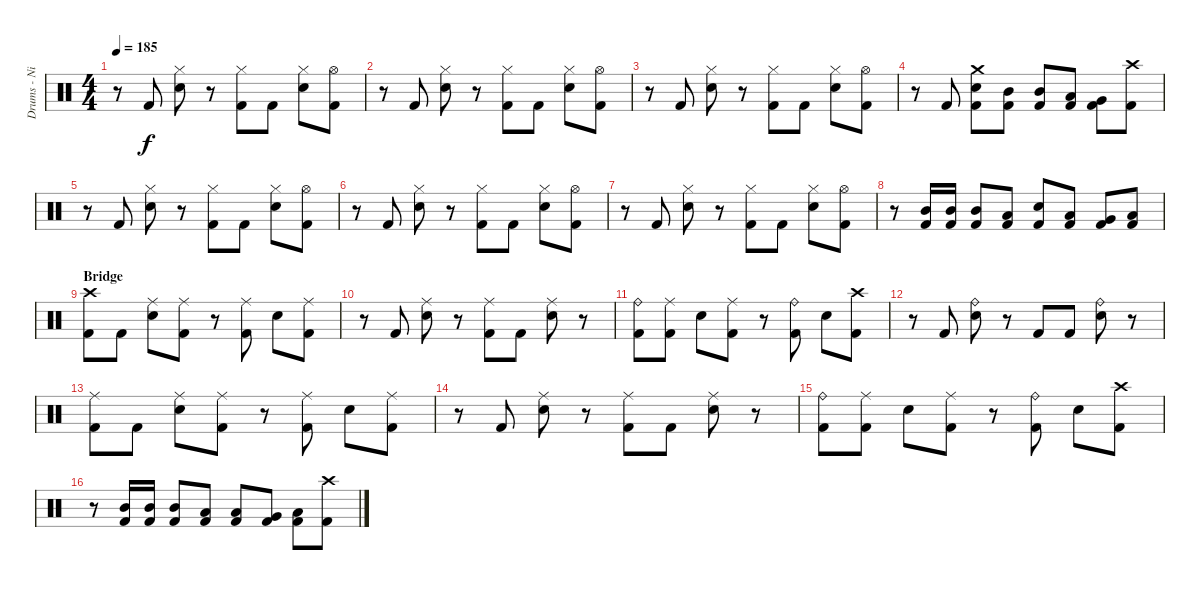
\track ("Drums - Nicko" "Drums - Ni") {instrument percussion}
\staff {score}
\articulation defaults
\ts (4 4)
\section ("" "")
\tempo 185
\clef neutral
\ks c
r.8{dy f} "Kick (hit) 2".8 ("Hi-Hat (closed)" "Snare (hit) 2").8 r.8 ("Hi-Hat (closed)" "Kick (hit) 2").8 "Kick (hit) 2".8 ("Hi-Hat (closed)" "Snare (hit) 2").8 ("Hi-Hat (open)" "Kick (hit) 2").8 |
r.8 "Kick (hit) 2".8 ("Hi-Hat (closed)" "Snare (hit) 2").8 r.8 ("Hi-Hat (closed)" "Kick (hit) 2").8 "Kick (hit) 2".8 ("Hi-Hat (closed)" "Snare (hit) 2").8 ("Hi-Hat (open)" "Kick (hit) 2").8 |
r.8 "Kick (hit) 2".8 ("Hi-Hat (closed)" "Snare (hit) 2").8 r.8 ("Hi-Hat (closed)" "Kick (hit) 2").8 "Kick (hit) 2".8 ("Hi-Hat (closed)" "Snare (hit) 2").8 ("Hi-Hat (open)" "Kick (hit) 2").8 |
r.8 "Kick (hit) 2".8 ("Crash medium (hit)" "Snare (hit) 2" "Kick (hit) 2").8 ("Mid Tom (hit)" "Kick (hit) 2").8 ("Mid Tom (hit)" "Kick (hit) 2").8 ("Low Tom (hit)" "Kick (hit) 2").8 ("Very Low Tom (hit)" "Kick (hit) 2").8 ("Crash high (hit)" "Kick (hit) 2").8 |
r.8 "Kick (hit) 2".8 ("Hi-Hat (closed)" "Snare (hit) 2").8 r.8 ("Hi-Hat (closed)" "Kick (hit) 2").8 "Kick (hit) 2".8 ("Hi-Hat (closed)" "Snare (hit) 2").8 ("Hi-Hat (open)" "Kick (hit) 2").8 |
r.8 "Kick (hit) 2".8 ("Hi-Hat (closed)" "Snare (hit) 2").8 r.8 ("Hi-Hat (closed)" "Kick (hit) 2").8 "Kick (hit) 2".8 ("Hi-Hat (closed)" "Snare (hit) 2").8 ("Hi-Hat (open)" "Kick (hit) 2").8 |
r.8 "Kick (hit) 2".8 ("Hi-Hat (closed)" "Snare (hit) 2").8 r.8 ("Hi-Hat (closed)" "Kick (hit) 2").8 "Kick (hit) 2".8 ("Hi-Hat (closed)" "Snare (hit) 2").8 ("Hi-Hat (open)" "Kick (hit) 2").8 |
r.8 ("Mid Tom (hit)" "Kick (hit) 2").16 ("Mid Tom (hit)" "Kick (hit) 2").16 ("Mid Tom (hit)" "Kick (hit) 2").8 ("Low Tom (hit)" "Kick (hit) 2").8 ("Snare (hit) 2" "Kick (hit) 2").8 ("Low Tom (hit)" "Kick (hit) 2").8 ("Very Low Tom (hit)" "Kick (hit) 2").8 ("Low Floor Tom (hit)" "Kick (hit) 2").8 |
\section ("" "Bridge")
("Crash high (hit)" "Kick (hit) 2").8 "Kick (hit) 2".8 ("Ride (middle)" "Snare (hit) 2").8 ("Ride (middle)" "Kick (hit) 2").8 r.8 ("Ride (middle)" "Kick (hit) 2").8 "Snare (hit) 2".8 ("Ride (middle)" "Kick (hit) 2").8 |
r.8 "Kick (hit) 2".8 ("Ride (middle)" "Snare (hit) 2").8 r.8 ("Ride (middle)" "Kick (hit) 2").8 "Kick (hit) 2".8 ("Ride (middle)" "Snare (hit) 2").8 r.8 |
("Ride (bell)" "Kick (hit) 2").8 ("Ride (middle)" "Kick (hit) 2").8 "Snare (hit) 2".8 ("Ride (middle)" "Kick (hit) 2").8 r.8 ("Ride (bell)" "Kick (hit) 2").8 "Snare (hit) 2".8 ("Crash high (hit)" "Kick (hit) 2").8 |
r.8 "Kick (hit) 2".8 ("Ride (bell)" "Snare (hit) 2").8 r.8 "Kick (hit) 2".8 "Kick (hit) 2".8 ("Ride (bell)" "Snare (hit) 2").8 r.8 |
("Ride (middle)" "Kick (hit) 2").8 "Kick (hit) 2".8 ("Ride (middle)" "Snare (hit) 2").8 ("Ride (middle)" "Kick (hit) 2").8 r.8 ("Ride (middle)" "Kick (hit) 2").8 "Snare (hit) 2".8 ("Ride (middle)" "Kick (hit) 2").8 |
r.8 "Kick (hit) 2".8 ("Ride (middle)" "Snare (hit) 2").8 r.8 ("Ride (middle)" "Kick (hit) 2").8 "Kick (hit) 2".8 ("Ride (middle)" "Snare (hit) 2").8 r.8 |
("Ride (bell)" "Kick (hit) 2").8 ("Ride (middle)" "Kick (hit) 2").8 "Snare (hit) 2".8 ("Ride (middle)" "Kick (hit) 2").8 r.8 ("Ride (bell)" "Kick (hit) 2").8 "Snare (hit) 2".8 ("Crash high (hit)" "Kick (hit) 2").8 |
r.8 ("Mid Tom (hit)" "Kick (hit) 2").16 ("Mid Tom (hit)" "Kick (hit) 2").16 ("Mid Tom (hit)" "Kick (hit) 2").8 ("Low Tom (hit)" "Kick (hit) 2").8 ("Low Tom (hit)" "Kick (hit) 2").8 ("Very Low Tom (hit)" "Kick (hit) 2").8 ("Low Floor Tom (hit)" "Kick (hit) 2").8 ("Crash high (hit)" "Kick (hit) 2").8
